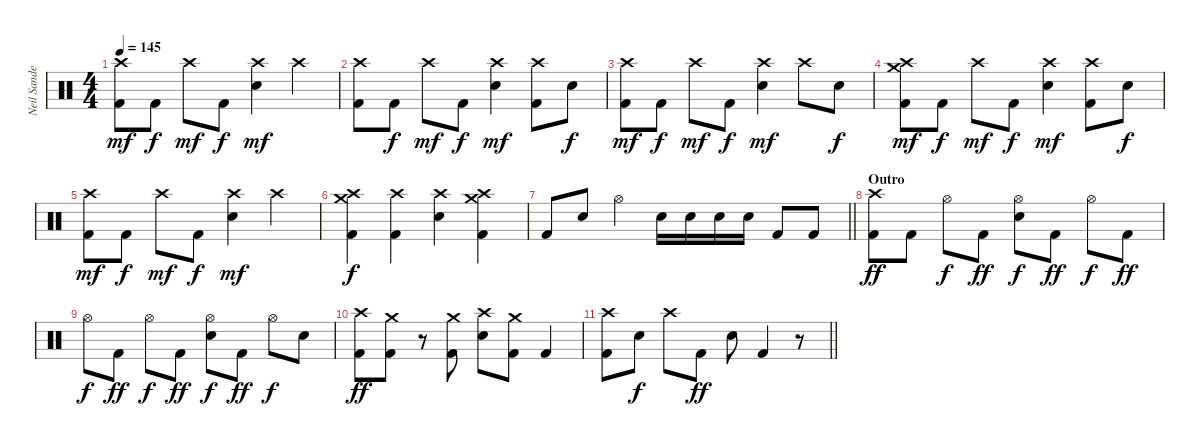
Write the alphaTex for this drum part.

\track ("Neil Sanderson" "Neil Sande") {instrument percussion}
\staff {score}
\articulation defaults
\ts (4 4)
\tempo 145
\clef neutral
\ks c
("Crash high (hit)" "Kick (hit) 2").8{dy mf} "Kick (hit) 2".8{dy f} "Crash high (hit)".8{dy mf} "Kick (hit) 2".8{dy f} ("Crash high (hit)" "Electric Snare (hit)").4{dy mf} "Crash high (hit)".4 |
("Crash high (hit)" "Kick (hit) 2").8 "Kick (hit) 2".8{dy f} "Crash high (hit)".8{dy mf} "Kick (hit) 2".8{dy f} ("Crash high (hit)" "Electric Snare (hit)").4{dy mf} ("Crash high (hit)" "Kick (hit) 2").8 "Electric Snare (hit)".8{dy f} |
("Crash high (hit)" "Kick (hit) 2").8{dy mf} "Kick (hit) 2".8{dy f} "Crash high (hit)".8{dy mf} "Kick (hit) 2".8{dy f} ("Crash high (hit)" "Electric Snare (hit)").4{dy mf} "Crash high (hit)".8 "Electric Snare (hit)".8{dy f} |
("Crash high (hit)" "Crash medium (hit)" "Kick (hit) 2").8{dy mf} "Kick (hit) 2".8{dy f} "Crash high (hit)".8{dy mf} "Kick (hit) 2".8{dy f} ("Crash high (hit)" "Electric Snare (hit)").4{dy mf} ("Crash high (hit)" "Kick (hit) 2").8 "Electric Snare (hit)".8{dy f} |
("Crash high (hit)" "Kick (hit) 2").8{dy mf} "Kick (hit) 2".8{dy f} "Crash high (hit)".8{dy mf} "Kick (hit) 2".8{dy f} ("Crash high (hit)" "Electric Snare (hit)").4{dy mf} "Crash high (hit)".4 |
("Crash high (hit)" "Crash medium (hit)" "Kick (hit) 2").4{dy f} ("Crash high (hit)" "Kick (hit) 2").4 ("Crash high (hit)" "Electric Snare (hit)").4 ("Crash high (hit)" "Crash medium (hit)" "Kick (hit) 2").4 |
\barLineRight lightlight "Kick (hit) 2".8 "Electric Snare (hit)".8 "Hi-Hat (open)".4 "Electric Snare (hit)".16 "Electric Snare (hit)".16 "Electric Snare (hit)".16 "Electric Snare (hit)".16 "Kick (hit) 2".8 "Kick (hit) 2".8
|
\section ("" "Outro")
("Crash high (hit)" "Kick (hit) 2").8{dy ff} "Kick (hit) 2".8 "Hi-Hat (open)".8{dy f} "Kick (hit) 2".8{dy ff} ("Hi-Hat (open)" "Electric Snare (hit)").8{dy f} "Kick (hit) 2".8{dy ff} "Hi-Hat (open)".8{dy f} "Kick (hit) 2".8{dy ff} |
"Hi-Hat (open)".8{dy f} "Kick (hit) 2".8{dy ff} "Hi-Hat (open)".8{dy f} "Kick (hit) 2".8{dy ff} ("Hi-Hat (open)" "Electric Snare (hit)").8{dy f} "Kick (hit) 2".8{dy ff} "Hi-Hat (open)".8{dy f} "Electric Snare (hit)".8 |
("Crash high (hit)" "Kick (hit) 2").8{dy ff} ("Crash medium (hit)" "Kick (hit) 2").8 r.8 ("Crash medium (hit)" "Kick (hit) 2").8 ("Crash high (hit)" "Electric Snare (hit)").8 ("Crash medium (hit)" "Kick (hit) 2").8 "Kick (hit) 2".4 |
\barLineRight lightlight
("Crash high (hit)" "Kick (hit) 2").8 "Electric Snare (hit)".8{dy f} "Crash high (hit)".8 "Kick (hit) 2".8{dy ff} "Electric Snare (hit)".8 "Kick (hit) 2".4 r.8
